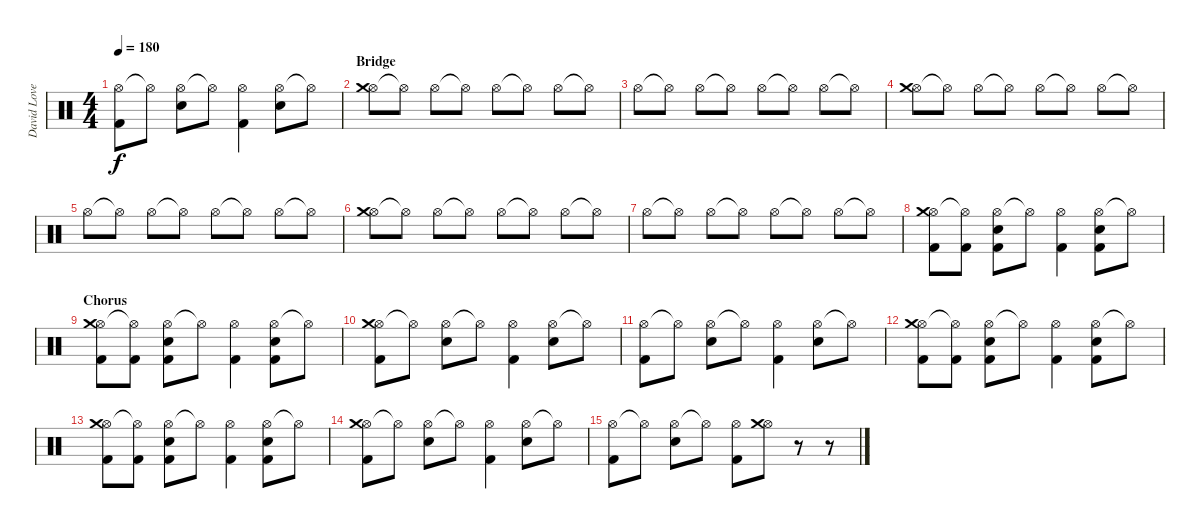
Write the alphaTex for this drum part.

\track ("David Lovering" "David Love") {instrument percussion}
\staff {score}
\articulation defaults
\ts (4 4)
\tempo 180
\clef neutral
\ks c
("Hi-Hat (open)" "Kick (hit) 2").8{dy f} "Hi-Hat (open)"{t}.8 ("Hi-Hat (open)" "Snare (hit) 2").8 "Hi-Hat (open)"{t}.8 ("Hi-Hat (open)" "Kick (hit) 2").4 ("Hi-Hat (open)" "Snare (hit) 2").8 "Hi-Hat (open)"{t}.8 |
\section ("" "Bridge")
("Hi-Hat (open)" "Crash medium (hit)").8 "Hi-Hat (open)"{t}.8 "Hi-Hat (open)".8 "Hi-Hat (open)"{t}.8 "Hi-Hat (open)".8 "Hi-Hat (open)"{t}.8 "Hi-Hat (open)".8 "Hi-Hat (open)"{t}.8 |
"Hi-Hat (open)".8 "Hi-Hat (open)"{t}.8 "Hi-Hat (open)".8 "Hi-Hat (open)"{t}.8 "Hi-Hat (open)".8 "Hi-Hat (open)"{t}.8 "Hi-Hat (open)".8 "Hi-Hat (open)"{t}.8 |
("Hi-Hat (open)" "Crash medium (hit)").8 "Hi-Hat (open)"{t}.8 "Hi-Hat (open)".8 "Hi-Hat (open)"{t}.8 "Hi-Hat (open)".8 "Hi-Hat (open)"{t}.8 "Hi-Hat (open)".8 "Hi-Hat (open)"{t}.8 |
"Hi-Hat (open)".8 "Hi-Hat (open)"{t}.8 "Hi-Hat (open)".8 "Hi-Hat (open)"{t}.8 "Hi-Hat (open)".8 "Hi-Hat (open)"{t}.8 "Hi-Hat (open)".8 "Hi-Hat (open)"{t}.8 |
("Hi-Hat (open)" "Crash medium (hit)").8 "Hi-Hat (open)"{t}.8 "Hi-Hat (open)".8 "Hi-Hat (open)"{t}.8 "Hi-Hat (open)".8 "Hi-Hat (open)"{t}.8 "Hi-Hat (open)".8 "Hi-Hat (open)"{t}.8 |
"Hi-Hat (open)".8 "Hi-Hat (open)"{t}.8 "Hi-Hat (open)".8 "Hi-Hat (open)"{t}.8 "Hi-Hat (open)".8 "Hi-Hat (open)"{t}.8 "Hi-Hat (open)".8 "Hi-Hat (open)"{t}.8 |
("Hi-Hat (open)" "Crash medium (hit)" "Kick (hit) 2").8 ("Hi-Hat (open)"{t} "Kick (hit) 2").8 ("Hi-Hat (open)" "Snare (hit) 2" "Kick (hit) 2").8 "Hi-Hat (open)"{t}.8 ("Hi-Hat (open)" "Kick (hit) 2").4 ("Hi-Hat (open)" "Snare (hit) 2" "Kick (hit) 2").8 "Hi-Hat (open)"{t}.8 |
\section ("" "Chorus")
("Hi-Hat (open)" "Crash medium (hit)" "Kick (hit) 2").8 ("Hi-Hat (open)"{t} "Kick (hit) 2").8 ("Hi-Hat (open)" "Snare (hit) 2" "Kick (hit) 2").8 "Hi-Hat (open)"{t}.8 ("Hi-Hat (open)" "Kick (hit) 2").4 ("Hi-Hat (open)" "Snare (hit) 2" "Kick (hit) 2").8 "Hi-Hat (open)"{t}.8 |
("Hi-Hat (open)" "Crash medium (hit)" "Kick (hit) 2").8 "Hi-Hat (open)"{t}.8 ("Hi-Hat (open)" "Snare (hit) 2").8 "Hi-Hat (open)"{t}.8 ("Hi-Hat (open)" "Kick (hit) 2").4 ("Hi-Hat (open)" "Snare (hit) 2").8 "Hi-Hat (open)"{t}.8 |
("Hi-Hat (open)" "Kick (hit) 2").8 "Hi-Hat (open)"{t}.8 ("Hi-Hat (open)" "Snare (hit) 2").8 "Hi-Hat (open)"{t}.8 ("Hi-Hat (open)" "Kick (hit) 2").4 ("Hi-Hat (open)" "Snare (hit) 2").8 "Hi-Hat (open)"{t}.8 |
("Hi-Hat (open)" "Crash medium (hit)" "Kick (hit) 2").8 ("Hi-Hat (open)"{t} "Kick (hit) 2").8 ("Hi-Hat (open)" "Snare (hit) 2" "Kick (hit) 2").8 "Hi-Hat (open)"{t}.8 ("Hi-Hat (open)" "Kick (hit) 2").4 ("Hi-Hat (open)" "Snare (hit) 2" "Kick (hit) 2").8 "Hi-Hat (open)"{t}.8 |
("Hi-Hat (open)" "Crash medium (hit)" "Kick (hit) 2").8 ("Hi-Hat (open)"{t} "Kick (hit) 2").8 ("Hi-Hat (open)" "Snare (hit) 2" "Kick (hit) 2").8 "Hi-Hat (open)"{t}.8 ("Hi-Hat (open)" "Kick (hit) 2").4 ("Hi-Hat (open)" "Snare (hit) 2" "Kick (hit) 2").8 "Hi-Hat (open)"{t}.8 |
("Hi-Hat (open)" "Crash medium (hit)" "Kick (hit) 2").8 "Hi-Hat (open)"{t}.8 ("Hi-Hat (open)" "Snare (hit) 2").8 "Hi-Hat (open)"{t}.8 ("Hi-Hat (open)" "Kick (hit) 2").4 ("Hi-Hat (open)" "Snare (hit) 2").8 "Hi-Hat (open)"{t}.8 |
("Hi-Hat (open)" "Kick (hit) 2").8 "Hi-Hat (open)"{t}.8 ("Hi-Hat (open)" "Snare (hit) 2").8 "Hi-Hat (open)"{t}.8 ("Hi-Hat (open)" "Kick (hit) 2").8 ("Hi-Hat (open)" "Crash medium (hit)").8 r.8 r.8
